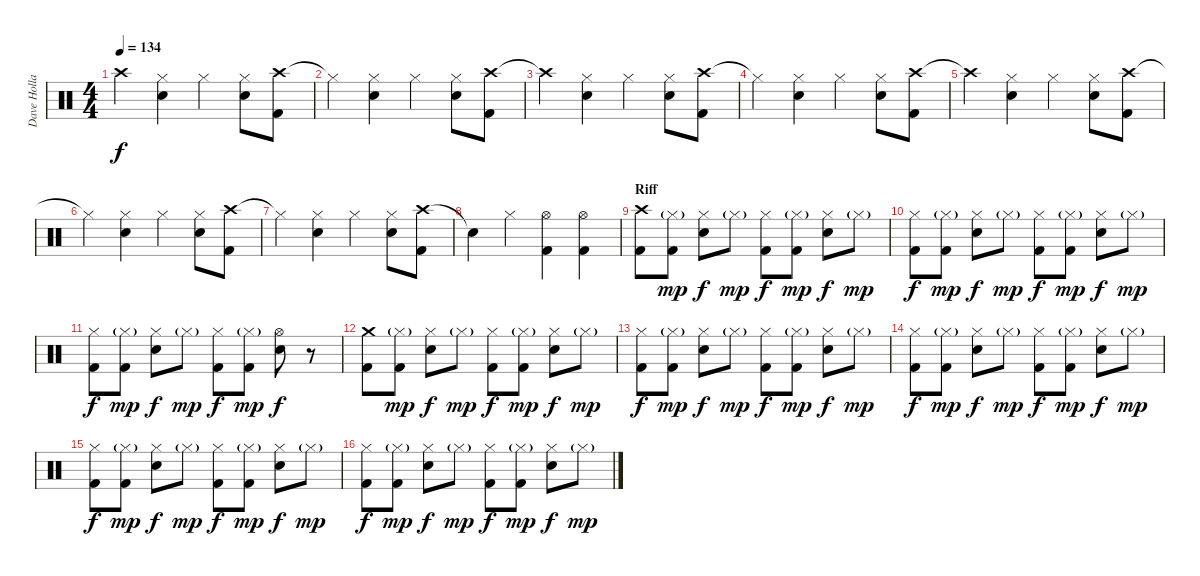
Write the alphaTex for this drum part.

\track ("Dave Holland" "Dave Holla") {instrument percussion}
\staff {score}
\articulation defaults
\ts (4 4)
\tempo 134
\clef neutral
\ks c "Crash high (hit)"{t}.4{dy f}
("Hi-Hat (closed)" "Snare (hit) 2").4 "Hi-Hat (closed)".4 ("Hi-Hat (closed)" "Snare (hit) 2").8 ("Crash high (hit)" "Kick (hit) 2").8 |
"Hi-Hat (closed)"{t}.4 ("Hi-Hat (closed)" "Snare (hit) 2").4 "Hi-Hat (closed)".4 ("Hi-Hat (closed)" "Snare (hit) 2").8 ("Crash high (hit)" "Kick (hit) 2").8 |
"Crash high (hit)"{t}.4 ("Hi-Hat (closed)" "Snare (hit) 2").4 "Hi-Hat (closed)".4 ("Hi-Hat (closed)" "Snare (hit) 2").8 ("Crash high (hit)" "Kick (hit) 2").8 |
"Hi-Hat (closed)"{t}.4 ("Hi-Hat (closed)" "Snare (hit) 2").4 "Hi-Hat (closed)".4 ("Hi-Hat (closed)" "Snare (hit) 2").8 ("Crash high (hit)" "Kick (hit) 2").8 |
"Crash high (hit)"{t}.4 ("Hi-Hat (closed)" "Snare (hit) 2").4 "Hi-Hat (closed)".4 ("Hi-Hat (closed)" "Snare (hit) 2").8 ("Crash high (hit)" "Kick (hit) 2").8 |
"Hi-Hat (closed)"{t}.4 ("Hi-Hat (closed)" "Snare (hit) 2").4 "Hi-Hat (closed)".4 ("Hi-Hat (closed)" "Snare (hit) 2").8 ("Crash high (hit)" "Kick (hit) 2").8 |
"Hi-Hat (closed)"{t}.4 ("Hi-Hat (closed)" "Snare (hit) 2").4 "Hi-Hat (closed)".4 ("Hi-Hat (closed)" "Snare (hit) 2").8 ("Crash high (hit)" "Kick (hit) 2").8 |
"Snare (hit)"{t}.4 "Hi-Hat (closed)".4 ("Hi-Hat (open)" "Kick (hit) 2").4 ("Hi-Hat (open)" "Kick (hit) 2").4 |
\section ("" "Riff")
("Crash high (hit)" "Kick (hit) 2").8 ("Hi-Hat (closed)"{g} "Kick (hit) 2").8{dy mp} ("Hi-Hat (closed)" "Snare (hit) 2").8{dy f} "Hi-Hat (closed)"{g}.8{dy mp} ("Hi-Hat (closed)" "Kick (hit) 2").8{dy f} ("Hi-Hat (closed)"{g} "Kick (hit) 2").8{dy mp} ("Hi-Hat (closed)" "Snare (hit) 2").8{dy f} "Hi-Hat (closed)"{g}.8{dy mp} |
("Hi-Hat (closed)" "Kick (hit) 2").8{dy f} ("Hi-Hat (closed)"{g} "Kick (hit) 2").8{dy mp} ("Hi-Hat (closed)" "Snare (hit) 2").8{dy f} "Hi-Hat (closed)"{g}.8{dy mp} ("Hi-Hat (closed)" "Kick (hit) 2").8{dy f} ("Hi-Hat (closed)"{g} "Kick (hit) 2").8{dy mp} ("Hi-Hat (closed)" "Snare (hit) 2").8{dy f} "Hi-Hat (closed)"{g}.8{dy mp} |
("Hi-Hat (closed)" "Kick (hit) 2").8{dy f} ("Hi-Hat (closed)"{g} "Kick (hit) 2").8{dy mp} ("Hi-Hat (closed)" "Snare (hit) 2").8{dy f} "Hi-Hat (closed)"{g}.8{dy mp} ("Hi-Hat (closed)" "Kick (hit) 2").8{dy f} ("Hi-Hat (closed)"{g} "Kick (hit) 2").8{dy mp} ("Hi-Hat (open)" "Snare (hit) 2").8{dy f} r.8 |
("Crash medium (hit)" "Kick (hit) 2").8 ("Hi-Hat (closed)"{g} "Kick (hit) 2").8{dy mp} ("Hi-Hat (closed)" "Snare (hit) 2").8{dy f} "Hi-Hat (closed)"{g}.8{dy mp} ("Hi-Hat (closed)" "Kick (hit) 2").8{dy f} ("Hi-Hat (closed)"{g} "Kick (hit) 2").8{dy mp} ("Hi-Hat (closed)" "Snare (hit) 2").8{dy f} "Hi-Hat (closed)"{g}.8{dy mp} |
("Hi-Hat (closed)" "Kick (hit) 2").8{dy f} ("Hi-Hat (closed)"{g} "Kick (hit) 2").8{dy mp} ("Hi-Hat (closed)" "Snare (hit) 2").8{dy f} "Hi-Hat (closed)"{g}.8{dy mp} ("Hi-Hat (closed)" "Kick (hit) 2").8{dy f} ("Hi-Hat (closed)"{g} "Kick (hit) 2").8{dy mp} ("Hi-Hat (closed)" "Snare (hit) 2").8{dy f} "Hi-Hat (closed)"{g}.8{dy mp} |
("Hi-Hat (closed)" "Kick (hit) 2").8{dy f} ("Hi-Hat (closed)"{g} "Kick (hit) 2").8{dy mp} ("Hi-Hat (closed)" "Snare (hit) 2").8{dy f} "Hi-Hat (closed)"{g}.8{dy mp} ("Hi-Hat (closed)" "Kick (hit) 2").8{dy f} ("Hi-Hat (closed)"{g} "Kick (hit) 2").8{dy mp} ("Hi-Hat (closed)" "Snare (hit) 2").8{dy f} "Hi-Hat (closed)"{g}.8{dy mp} |
("Hi-Hat (closed)" "Kick (hit) 2").8{dy f} ("Hi-Hat (closed)"{g} "Kick (hit) 2").8{dy mp} ("Hi-Hat (closed)" "Snare (hit) 2").8{dy f} "Hi-Hat (closed)"{g}.8{dy mp} ("Hi-Hat (closed)" "Kick (hit) 2").8{dy f} ("Hi-Hat (closed)"{g} "Kick (hit) 2").8{dy mp} ("Hi-Hat (closed)" "Snare (hit) 2").8{dy f} "Hi-Hat (closed)"{g}.8{dy mp} |
("Hi-Hat (closed)" "Kick (hit) 2").8{dy f} ("Hi-Hat (closed)"{g} "Kick (hit) 2").8{dy mp} ("Hi-Hat (closed)" "Snare (hit) 2").8{dy f} "Hi-Hat (closed)"{g}.8{dy mp} ("Hi-Hat (closed)" "Kick (hit) 2").8{dy f} ("Hi-Hat (closed)"{g} "Kick (hit) 2").8{dy mp} ("Hi-Hat (closed)" "Snare (hit) 2").8{dy f} "Hi-Hat (closed)"{g}.8{dy mp}
